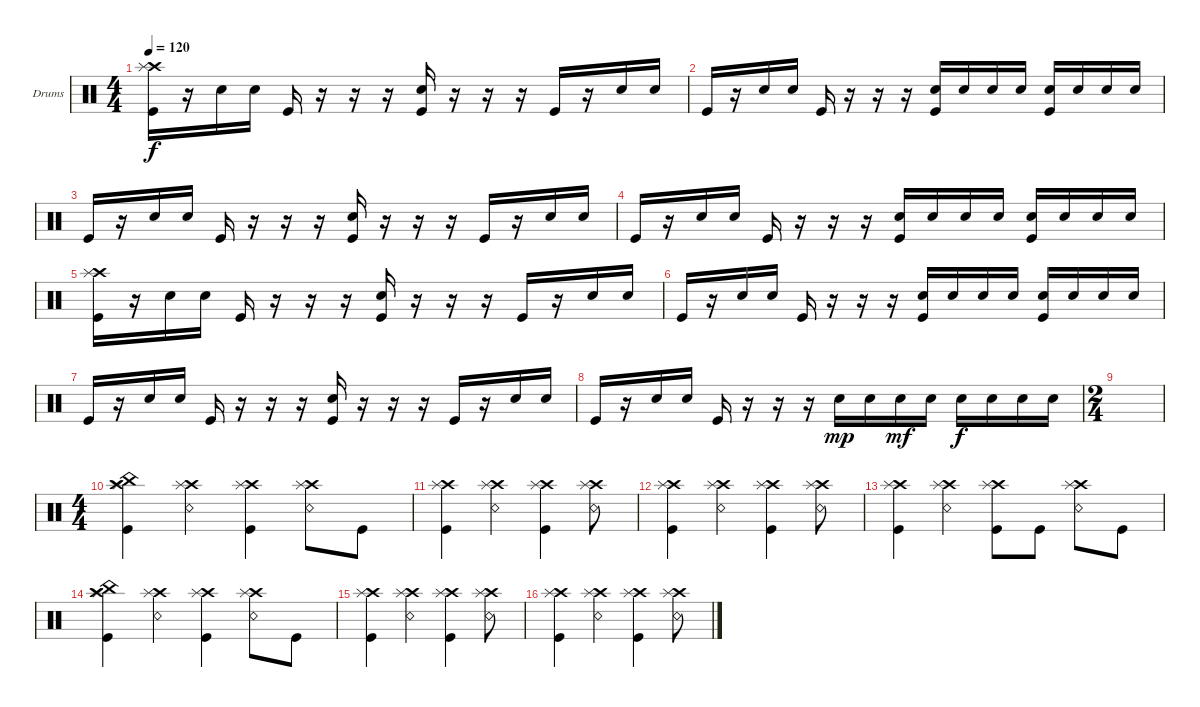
\defaultSystemsLayout 4
\bracketExtendMode groupsimilarinstruments
\firstSystemTrackNameOrientation horizontal
\otherSystemsTrackNameOrientation horizontal
\track ("Drumkit" "Drums") {instrument percussion}
\staff {score}
\articulation defaults
\ts (4 4)
\tempo 120
\clef neutral
\scale
0.333333
\ks c
("Kick (hit)" "Crash high (hit)" "Splash (hit)").16{dy f} r.16 "Snare (hit) 2".16 "Snare (hit) 2".16 "Kick (hit)".16 r.16 r.16 r.16 ("Snare (hit) 2" "Kick (hit)").16 r.16 r.16 r.16 "Kick (hit)".16 r.16 "Snare (hit) 2".16 "Snare (hit) 2".16 |
\scale
0.333333 "Kick (hit)".16 r.16 "Snare (hit) 2".16 "Snare (hit) 2".16 "Kick (hit)".16 r.16 r.16 r.16 ("Snare (hit) 2" "Kick (hit)").16 "Snare (hit) 2".16 "Snare (hit) 2".16 "Snare (hit) 2".16 ("Snare (hit) 2" "Kick (hit)").16 "Snare (hit) 2".16 "Snare (hit) 2".16 "Snare (hit) 2".16 |
\scale
0.333333 "Kick (hit)".16 r.16 "Snare (hit) 2".16 "Snare (hit) 2".16 "Kick (hit)".16 r.16 r.16 r.16 ("Snare (hit) 2" "Kick (hit)").16 r.16 r.16 r.16 "Kick (hit)".16 r.16 "Snare (hit) 2".16 "Snare (hit) 2".16 |
\scale
0.333333 "Kick (hit)".16 r.16 "Snare (hit) 2".16 "Snare (hit) 2".16 "Kick (hit)".16 r.16 r.16 r.16 ("Snare (hit) 2" "Kick (hit)").16 "Snare (hit) 2".16 "Snare (hit) 2".16 "Snare (hit) 2".16 ("Snare (hit) 2" "Kick (hit)").16 "Snare (hit) 2".16 "Snare (hit) 2".16 "Snare (hit) 2".16 |
\scale
0.333333 ("Kick (hit)" "Crash high (hit)" "Splash (hit)").16 r.16 "Snare (hit) 2".16 "Snare (hit) 2".16 "Kick (hit)".16 r.16 r.16 r.16 ("Snare (hit) 2" "Kick (hit)").16 r.16 r.16 r.16 "Kick (hit)".16 r.16 "Snare (hit) 2".16 "Snare (hit) 2".16 |
\scale
0.333333 "Kick (hit)".16 r.16 "Snare (hit) 2".16 "Snare (hit) 2".16 "Kick (hit)".16 r.16 r.16 r.16 ("Snare (hit) 2" "Kick (hit)").16 "Snare (hit) 2".16 "Snare (hit) 2".16 "Snare (hit) 2".16 ("Snare (hit) 2" "Kick (hit)").16 "Snare (hit) 2".16 "Snare (hit) 2".16 "Snare (hit) 2".16 |
\scale
0.333333 "Kick (hit)".16 r.16 "Snare (hit) 2".16 "Snare (hit) 2".16 "Kick (hit)".16 r.16 r.16 r.16 ("Snare (hit) 2" "Kick (hit)").16 r.16 r.16 r.16 "Kick (hit)".16 r.16 "Snare (hit) 2".16 "Snare (hit) 2".16 |
\scale
0.333333 "Kick (hit)".16 r.16 "Snare (hit) 2".16 "Snare (hit) 2".16 "Kick (hit)".16 r.16 r.16 r.16 "Snare (hit) 2".16{dy mp} "Snare (hit) 2".16 "Snare (hit) 2".16{dy mf} "Snare (hit) 2".16 "Snare (hit) 2".16{dy f} "Snare (hit) 2".16 "Snare (hit) 2".16 "Snare (hit) 2".16 |
\ts (2 4)
|
\ts (4 4)
\scale
0.333333 ("Kick (hit)" "Crash high (hit)" "Splash (hit)" "China (hit)").4 ("Snare (rim shot)" "Crash high (hit)" "Splash (hit)").4 ("Kick (hit)" "Crash high (hit)" "Splash (hit)").4 ("Snare (rim shot)" "Crash high (hit)" "Splash (hit)").8 "Kick (hit)".8 |
\scale
0.333333 ("Kick (hit)" "Crash high (hit)" "Splash (hit)").4 ("Snare (rim shot)" "Crash high (hit)" "Splash (hit)").4 ("Kick (hit)" "Crash high (hit)" "Splash (hit)").4 ("Snare (rim shot)" "Crash high (hit)" "Splash (hit)").8 |
\scale
0.333333 ("Kick (hit)" "Crash high (hit)" "Splash (hit)").4 ("Snare (rim shot)" "Crash high (hit)" "Splash (hit)").4 ("Kick (hit)" "Crash high (hit)" "Splash (hit)").4 ("Snare (rim shot)" "Crash high (hit)" "Splash (hit)").8 |
\scale
0.333333 ("Kick (hit)" "Crash high (hit)" "Splash (hit)").4 ("Snare (rim shot)" "Crash high (hit)" "Splash (hit)").4 ("Kick (hit)" "Crash high (hit)" "Splash (hit)").8 "Kick (hit)".8 ("Snare (rim shot)" "Crash high (hit)" "Splash (hit)").8 "Kick (hit)".8 |
\scale
0.333333 ("Kick (hit)" "Crash high (hit)" "Splash (hit)" "China (hit)").4 ("Snare (rim shot)" "Crash high (hit)" "Splash (hit)").4 ("Kick (hit)" "Crash high (hit)" "Splash (hit)").4 ("Snare (rim shot)" "Crash high (hit)" "Splash (hit)").8 "Kick (hit)".8 |
\scale
0.333333 ("Kick (hit)" "Crash high (hit)" "Splash (hit)").4 ("Snare (rim shot)" "Crash high (hit)" "Splash (hit)").4 ("Kick (hit)" "Crash high (hit)" "Splash (hit)").4 ("Snare (rim shot)" "Crash high (hit)" "Splash (hit)").8 |
\scale
0.333333 ("Kick (hit)" "Crash high (hit)" "Splash (hit)").4 ("Snare (rim shot)" "Crash high (hit)" "Splash (hit)").4 ("Kick (hit)" "Crash high (hit)" "Splash (hit)").4 ("Snare (rim shot)" "Crash high (hit)" "Splash (hit)").8
